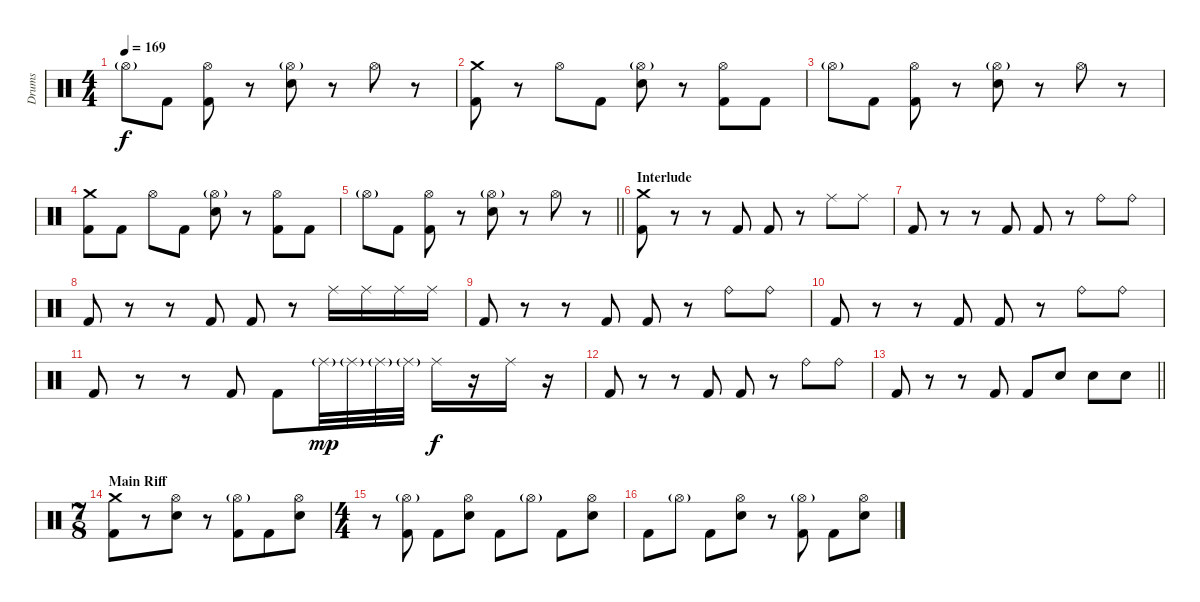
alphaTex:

\track ("Drums" "Drums") {instrument percussion}
\staff {score}
\articulation defaults
\ts (4 4)
\tempo 169
\clef neutral
\ks c "Hi-Hat (open)"{g}.8{dy f} "Kick (hit) 2".8
("Hi-Hat (open)" "Kick (hit) 2").8 r.8 ("Hi-Hat (open)"{g} "Electric Snare (hit)").8 r.8 "Hi-Hat (open)".8 r.8 |
("Crash medium (hit)" "Kick (hit) 2").8 r.8 "Hi-Hat (open)".8 "Kick (hit) 2".8 ("Hi-Hat (open)"{g} "Electric Snare (hit)").8 r.8 ("Hi-Hat (open)" "Kick (hit) 2").8 "Kick (hit) 2".8 |
"Hi-Hat (open)"{g}.8 "Kick (hit) 2".8 ("Hi-Hat (open)" "Kick (hit) 2").8 r.8 ("Hi-Hat (open)"{g} "Electric Snare (hit)").8 r.8 "Hi-Hat (open)".8 r.8 |
("Crash medium (hit)" "Kick (hit) 2").8 "Kick (hit) 2".8 "Hi-Hat (open)".8 "Kick (hit) 2".8 ("Hi-Hat (open)"{g} "Electric Snare (hit)").8 r.8 ("Hi-Hat (open)" "Kick (hit) 2").8 "Kick (hit) 2".8 |
\barLineRight lightlight "Hi-Hat (open)"{g}.8 "Kick (hit) 2".8
("Hi-Hat (open)" "Kick (hit) 2").8 r.8 ("Hi-Hat (open)"{g} "Electric Snare (hit)").8 r.8 "Hi-Hat (open)".8 r.8 |
\section ("" "Interlude")
("Crash medium (hit)" "Kick (hit) 2").8 r.8 r.8 "Kick (hit) 2".8 "Kick (hit) 2".8 r.8 "Ride (middle)".8 "Ride (middle)".8 |
"Kick (hit) 2".8 r.8 r.8 "Kick (hit) 2".8 "Kick (hit) 2".8 r.8 "Ride (bell)".8 "Ride (bell)".8 |
"Kick (hit) 2".8 r.8 r.8 "Kick (hit) 2".8 "Kick (hit) 2".8 r.8 "Ride (middle)".16 "Ride (middle)".16 "Ride (middle)".16 "Ride (middle)".16 |
"Kick (hit) 2".8 r.8 r.8 "Kick (hit) 2".8 "Kick (hit) 2".8 r.8 "Ride (bell)".8 "Ride (bell)".8 |
"Kick (hit) 2".8 r.8 r.8 "Kick (hit) 2".8 "Kick (hit) 2".8 r.8 "Ride (bell)".8 "Ride (bell)".8 |
"Kick (hit) 2".8 r.8 r.8 "Kick (hit) 2".8 "Kick (hit) 2".8 "Ride (middle)"{g}.32{dy mp} "Ride (middle)"{g}.32 "Ride (middle)"{g}.32 "Ride (middle)"{g}.32 "Ride (middle)".16{dy f} r.16 "Ride (middle)".16 r.16 |
"Kick (hit) 2".8 r.8 r.8 "Kick (hit) 2".8 "Kick (hit) 2".8 r.8 "Ride (bell)".8 "Ride (bell)".8 |
\barLineRight lightlight "Kick (hit) 2".8
r.8 r.8 "Kick (hit) 2".8 "Kick (hit) 2".8 "Electric Snare (hit)".8 "Electric Snare (hit)".8 "Electric Snare (hit)".8 |
\ts (7 8)
\section ("" "Main Riff")
("Crash medium (hit)" "Kick (hit) 2").8 r.8 ("Hi-Hat (open)" "Electric Snare (hit)").8 r.8 ("Hi-Hat (open)"{g} "Kick (hit) 2").8 "Kick (hit) 2".8 ("Hi-Hat (open)" "Electric Snare (hit)").8 |
\ts (4 4)
r.8 ("Hi-Hat (open)"{g} "Kick (hit) 2").8 "Kick (hit) 2".8 ("Hi-Hat (open)" "Electric Snare (hit)").8 "Kick (hit) 2".8 "Hi-Hat (open)"{g}.8 "Kick (hit) 2".8 ("Hi-Hat (open)" "Electric Snare (hit)").8 |
"Kick (hit) 2".8 "Hi-Hat (open)"{g}.8 "Kick (hit) 2".8 ("Hi-Hat (open)" "Electric Snare (hit)").8 r.8 ("Hi-Hat (open)"{g} "Kick (hit) 2").8 "Kick (hit) 2".8 ("Hi-Hat (open)" "Electric Snare (hit)").8
